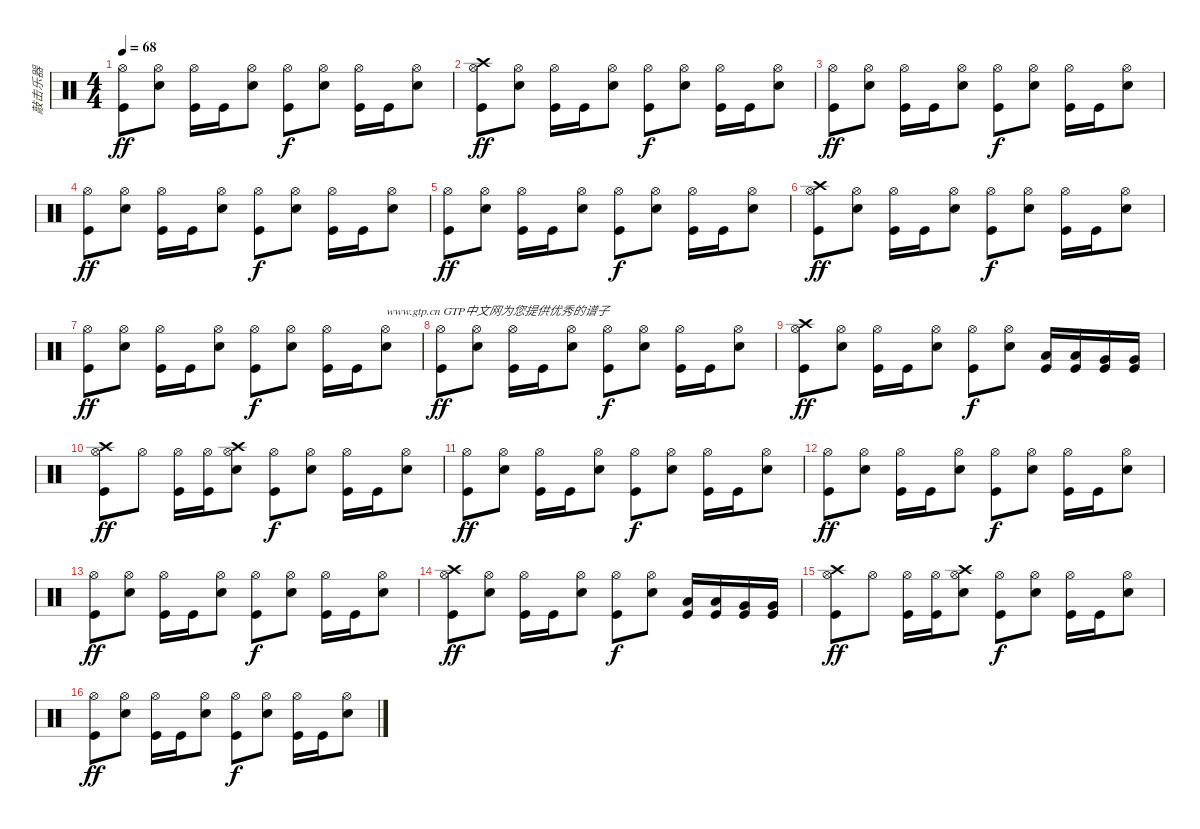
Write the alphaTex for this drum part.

\track ("敲击乐器" "敲击乐器") {instrument percussion}
\staff {score}
\articulation defaults
\ts (4 4)
\tempo 68
\clef neutral
\ks c
("Hi-Hat (open)" "Kick (hit)").8{dy ff} ("Hi-Hat (open)" "Snare (hit) 2").8 ("Hi-Hat (open)" "Kick (hit)").16 "Kick (hit)".16 ("Hi-Hat (open)" "Snare (hit) 2").8 ("Hi-Hat (open)" "Kick (hit)").8{dy f} ("Hi-Hat (open)" "Snare (hit) 2").8 ("Hi-Hat (open)" "Kick (hit)").16 "Kick (hit)".16 ("Hi-Hat (open)" "Snare (hit) 2").8 |
("Crash high (hit)" "Hi-Hat (open)" "Kick (hit)").8{dy ff} ("Hi-Hat (open)" "Snare (hit) 2").8 ("Hi-Hat (open)" "Kick (hit)").16 "Kick (hit)".16 ("Hi-Hat (open)" "Snare (hit) 2").8 ("Hi-Hat (open)" "Kick (hit)").8{dy f} ("Hi-Hat (open)" "Snare (hit) 2").8 ("Hi-Hat (open)" "Kick (hit)").16 "Kick (hit)".16 ("Hi-Hat (open)" "Snare (hit) 2").8 |
("Hi-Hat (open)" "Kick (hit)").8{dy ff} ("Hi-Hat (open)" "Snare (hit) 2").8 ("Hi-Hat (open)" "Kick (hit)").16 "Kick (hit)".16 ("Hi-Hat (open)" "Snare (hit) 2").8 ("Hi-Hat (open)" "Kick (hit)").8{dy f} ("Hi-Hat (open)" "Snare (hit) 2").8 ("Hi-Hat (open)" "Kick (hit)").16 "Kick (hit)".16 ("Hi-Hat (open)" "Snare (hit) 2").8 |
("Hi-Hat (open)" "Kick (hit)").8{dy ff} ("Hi-Hat (open)" "Snare (hit) 2").8 ("Hi-Hat (open)" "Kick (hit)").16 "Kick (hit)".16 ("Hi-Hat (open)" "Snare (hit) 2").8 ("Hi-Hat (open)" "Kick (hit)").8{dy f} ("Hi-Hat (open)" "Snare (hit) 2").8 ("Hi-Hat (open)" "Kick (hit)").16 "Kick (hit)".16 ("Hi-Hat (open)" "Snare (hit) 2").8 |
("Hi-Hat (open)" "Kick (hit)").8{dy ff} ("Hi-Hat (open)" "Snare (hit) 2").8 ("Hi-Hat (open)" "Kick (hit)").16 "Kick (hit)".16 ("Hi-Hat (open)" "Snare (hit) 2").8 ("Hi-Hat (open)" "Kick (hit)").8{dy f} ("Hi-Hat (open)" "Snare (hit) 2").8 ("Hi-Hat (open)" "Kick (hit)").16 "Kick (hit)".16 ("Hi-Hat (open)" "Snare (hit) 2").8 |
("Crash high (hit)" "Hi-Hat (open)" "Kick (hit)").8{dy ff} ("Hi-Hat (open)" "Snare (hit) 2").8 ("Hi-Hat (open)" "Kick (hit)").16 "Kick (hit)".16 ("Hi-Hat (open)" "Snare (hit) 2").8 ("Hi-Hat (open)" "Kick (hit)").8{dy f} ("Hi-Hat (open)" "Snare (hit) 2").8 ("Hi-Hat (open)" "Kick (hit)").16 "Kick (hit)".16 ("Hi-Hat (open)" "Snare (hit) 2").8 |
("Hi-Hat (open)" "Kick (hit)").8{dy ff} ("Hi-Hat (open)" "Snare (hit) 2").8 ("Hi-Hat (open)" "Kick (hit)").16 "Kick (hit)".16 ("Hi-Hat (open)" "Snare (hit) 2").8 ("Hi-Hat (open)" "Kick (hit)").8{dy f} ("Hi-Hat (open)" "Snare (hit) 2").8 ("Hi-Hat (open)" "Kick (hit)").16 "Kick (hit)".16 ("Hi-Hat (open)" "Snare (hit) 2").8{txt "www.gtp.cn GTP中文网为您提供优秀的谱子"} |
("Hi-Hat (open)" "Kick (hit)").8{dy ff} ("Hi-Hat (open)" "Snare (hit) 2").8 ("Hi-Hat (open)" "Kick (hit)").16 "Kick (hit)".16 ("Hi-Hat (open)" "Snare (hit) 2").8 ("Hi-Hat (open)" "Kick (hit)").8{dy f} ("Hi-Hat (open)" "Snare (hit) 2").8 ("Hi-Hat (open)" "Kick (hit)").16 "Kick (hit)".16 ("Hi-Hat (open)" "Snare (hit) 2").8 |
("Crash high (hit)" "Hi-Hat (open)" "Kick (hit)").8{dy ff} ("Hi-Hat (open)" "Snare (hit) 2").8 ("Hi-Hat (open)" "Kick (hit)").16 "Kick (hit)".16 ("Hi-Hat (open)" "Snare (hit) 2").8 ("Hi-Hat (open)" "Kick (hit)").8{dy f} ("Hi-Hat (open)" "Snare (hit) 2").8 ("Low Tom (hit)" "Kick (hit)").16 ("Low Tom (hit)" "Kick (hit)").16 ("Very Low Tom (hit)" "Kick (hit)").16 ("Very Low Tom (hit)" "Kick (hit)").16 |
("Crash high (hit)" "Hi-Hat (open)" "Kick (hit)").8{dy ff} "Hi-Hat (open)".8 ("Hi-Hat (open)" "Kick (hit)").16 ("Hi-Hat (open)" "Kick (hit)").16 ("Crash high (hit)" "Hi-Hat (open)" "Snare (hit) 2").8 ("Hi-Hat (open)" "Kick (hit)").8{dy f} ("Hi-Hat (open)" "Snare (hit) 2").8 ("Hi-Hat (open)" "Kick (hit)").16 "Kick (hit)".16 ("Hi-Hat (open)" "Snare (hit) 2").8 |
("Hi-Hat (open)" "Kick (hit)").8{dy ff} ("Hi-Hat (open)" "Snare (hit) 2").8 ("Hi-Hat (open)" "Kick (hit)").16 "Kick (hit)".16 ("Hi-Hat (open)" "Snare (hit) 2").8 ("Hi-Hat (open)" "Kick (hit)").8{dy f} ("Hi-Hat (open)" "Snare (hit) 2").8 ("Hi-Hat (open)" "Kick (hit)").16 "Kick (hit)".16 ("Hi-Hat (open)" "Snare (hit) 2").8 |
("Hi-Hat (open)" "Kick (hit)").8{dy ff} ("Hi-Hat (open)" "Snare (hit) 2").8 ("Hi-Hat (open)" "Kick (hit)").16 "Kick (hit)".16 ("Hi-Hat (open)" "Snare (hit) 2").8 ("Hi-Hat (open)" "Kick (hit)").8{dy f} ("Hi-Hat (open)" "Snare (hit) 2").8 ("Hi-Hat (open)" "Kick (hit)").16 "Kick (hit)".16 ("Hi-Hat (open)" "Snare (hit) 2").8 |
("Hi-Hat (open)" "Kick (hit)").8{dy ff} ("Hi-Hat (open)" "Snare (hit) 2").8 ("Hi-Hat (open)" "Kick (hit)").16 "Kick (hit)".16 ("Hi-Hat (open)" "Snare (hit) 2").8 ("Hi-Hat (open)" "Kick (hit)").8{dy f} ("Hi-Hat (open)" "Snare (hit) 2").8 ("Hi-Hat (open)" "Kick (hit)").16 "Kick (hit)".16 ("Hi-Hat (open)" "Snare (hit) 2").8 |
("Crash high (hit)" "Hi-Hat (open)" "Kick (hit)").8{dy ff} ("Hi-Hat (open)" "Snare (hit) 2").8 ("Hi-Hat (open)" "Kick (hit)").16 "Kick (hit)".16 ("Hi-Hat (open)" "Snare (hit) 2").8 ("Hi-Hat (open)" "Kick (hit)").8{dy f} ("Hi-Hat (open)" "Snare (hit) 2").8 ("Low Tom (hit)" "Kick (hit)").16 ("Low Tom (hit)" "Kick (hit)").16 ("Very Low Tom (hit)" "Kick (hit)").16 ("Very Low Tom (hit)" "Kick (hit)").16 |
("Crash high (hit)" "Hi-Hat (open)" "Kick (hit)").8{dy ff} "Hi-Hat (open)".8 ("Hi-Hat (open)" "Kick (hit)").16 ("Hi-Hat (open)" "Kick (hit)").16 ("Crash high (hit)" "Hi-Hat (open)" "Snare (hit) 2").8 ("Hi-Hat (open)" "Kick (hit)").8{dy f} ("Hi-Hat (open)" "Snare (hit) 2").8 ("Hi-Hat (open)" "Kick (hit)").16 "Kick (hit)".16 ("Hi-Hat (open)" "Snare (hit) 2").8 |
("Hi-Hat (open)" "Kick (hit)").8{dy ff} ("Hi-Hat (open)" "Snare (hit) 2").8 ("Hi-Hat (open)" "Kick (hit)").16 "Kick (hit)".16 ("Hi-Hat (open)" "Snare (hit) 2").8 ("Hi-Hat (open)" "Kick (hit)").8{dy f} ("Hi-Hat (open)" "Snare (hit) 2").8 ("Hi-Hat (open)" "Kick (hit)").16 "Kick (hit)".16 ("Hi-Hat (open)" "Snare (hit) 2").8
